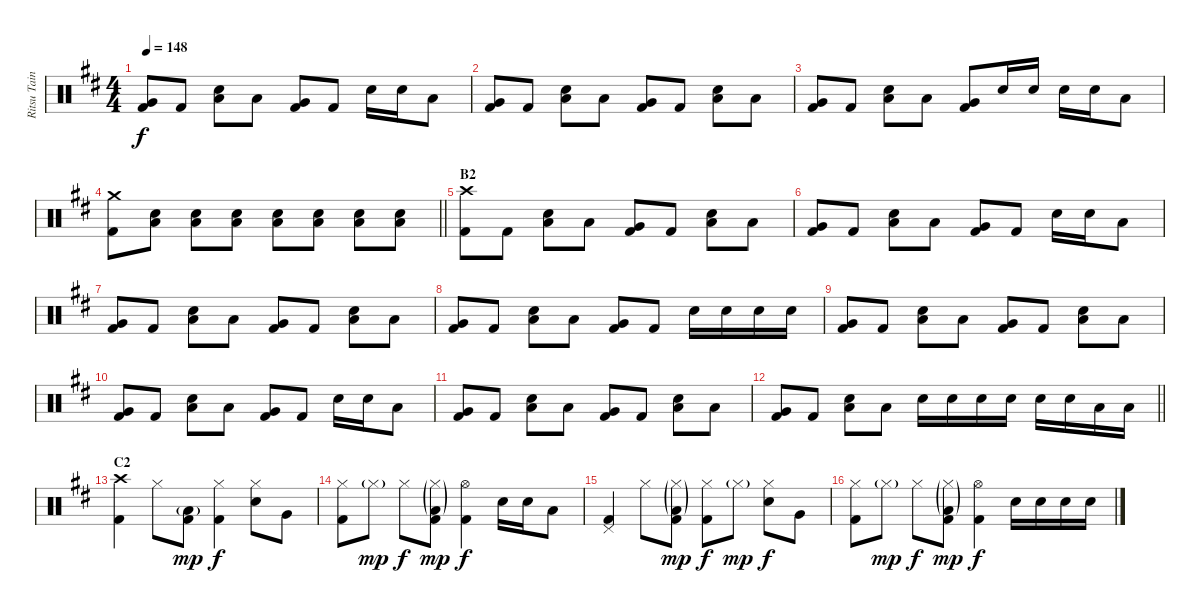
\track ("Ritsu Tainaka" "Ritsu Tain") {instrument percussion}
\staff {score}
\articulation defaults
\ts (4 4)
\tempo 148
\clef neutral
\ks d
("Very Low Tom (hit)" "Kick (hit) 2").8{dy f} "Kick (hit) 2".8 ("Snare (hit) 2" "Low Floor Tom (hit)").8 "Low Tom (hit)".8 ("Very Low Tom (hit)" "Kick (hit) 2").8 "Kick (hit) 2".8 "Snare (hit) 2".16 "Snare (hit) 2".16 "Low Tom (hit)".8 |
("Very Low Tom (hit)" "Kick (hit) 2").8 "Kick (hit) 2".8 ("Snare (hit) 2" "Low Floor Tom (hit)").8 "Low Tom (hit)".8 ("Very Low Tom (hit)" "Kick (hit) 2").8 "Kick (hit) 2".8 ("Snare (hit) 2" "Low Floor Tom (hit)").8 "Low Tom (hit)".8 |
("Very Low Tom (hit)" "Kick (hit) 2").8 "Kick (hit) 2".8 ("Snare (hit) 2" "Low Floor Tom (hit)").8 "Low Tom (hit)".8 ("Very Low Tom (hit)" "Kick (hit) 2").8 "Snare (hit) 2".16 "Snare (hit) 2".16 "Snare (hit) 2".16 "Snare (hit) 2".16 "Low Tom (hit)".8 |
\barLineRight lightlight
("Crash medium (hit)" "Kick (hit) 2").8 ("Snare (hit) 2" "Low Floor Tom (hit)").8 ("Snare (hit) 2" "Low Floor Tom (hit)").8 ("Snare (hit) 2" "Low Floor Tom (hit)").8 ("Snare (hit) 2" "Low Floor Tom (hit)").8 ("Snare (hit) 2" "Low Floor Tom (hit)").8 ("Snare (hit) 2" "Low Floor Tom (hit)").8 ("Snare (hit) 2" "Low Floor Tom (hit)").8 |
\section ("" "B2")
("Crash high (hit)" "Kick (hit) 2").8 "Kick (hit) 2".8 ("Snare (hit) 2" "Low Floor Tom (hit)").8 "Low Tom (hit)".8 ("Very Low Tom (hit)" "Kick (hit) 2").8 "Kick (hit) 2".8 ("Snare (hit) 2" "Low Floor Tom (hit)").8 "Low Tom (hit)".8 |
("Very Low Tom (hit)" "Kick (hit) 2").8 "Kick (hit) 2".8 ("Snare (hit) 2" "Low Floor Tom (hit)").8 "Low Tom (hit)".8 ("Very Low Tom (hit)" "Kick (hit) 2").8 "Kick (hit) 2".8 "Snare (hit) 2".16 "Snare (hit) 2".16 "Low Tom (hit)".8 |
("Very Low Tom (hit)" "Kick (hit) 2").8 "Kick (hit) 2".8 ("Snare (hit) 2" "Low Floor Tom (hit)").8 "Low Tom (hit)".8 ("Very Low Tom (hit)" "Kick (hit) 2").8 "Kick (hit) 2".8 ("Snare (hit) 2" "Low Floor Tom (hit)").8 "Low Tom (hit)".8 |
("Very Low Tom (hit)" "Kick (hit) 2").8 "Kick (hit) 2".8 ("Snare (hit) 2" "Low Floor Tom (hit)").8 "Low Tom (hit)".8 ("Very Low Tom (hit)" "Kick (hit) 2").8 "Kick (hit) 2".8 "Snare (hit) 2".16 "Snare (hit) 2".16 "Snare (hit) 2".16 "Snare (hit) 2".16 |
("Very Low Tom (hit)" "Kick (hit) 2").8 "Kick (hit) 2".8 ("Snare (hit) 2" "Low Floor Tom (hit)").8 "Low Tom (hit)".8 ("Very Low Tom (hit)" "Kick (hit) 2").8 "Kick (hit) 2".8 ("Snare (hit) 2" "Low Floor Tom (hit)").8 "Low Tom (hit)".8 |
("Very Low Tom (hit)" "Kick (hit) 2").8 "Kick (hit) 2".8 ("Snare (hit) 2" "Low Floor Tom (hit)").8 "Low Tom (hit)".8 ("Very Low Tom (hit)" "Kick (hit) 2").8 "Kick (hit) 2".8 "Snare (hit) 2".16 "Snare (hit) 2".16 "Low Tom (hit)".8 |
("Very Low Tom (hit)" "Kick (hit) 2").8 "Kick (hit) 2".8 ("Snare (hit) 2" "Low Floor Tom (hit)").8 "Low Tom (hit)".8 ("Very Low Tom (hit)" "Kick (hit) 2").8 "Kick (hit) 2".8 ("Snare (hit) 2" "Low Floor Tom (hit)").8 "Low Tom (hit)".8 |
\barLineRight lightlight
("Very Low Tom (hit)" "Kick (hit) 2").8 "Kick (hit) 2".8 ("Snare (hit) 2" "Low Floor Tom (hit)").8 "Low Tom (hit)".8 "Snare (hit) 2".16 "Snare (hit) 2".16 "Snare (hit) 2".16 "Snare (hit) 2".16 "Snare (hit) 2".16 "Snare (hit) 2".16 "Low Tom (hit)".16 "Low Tom (hit)".16 |
\section ("" "C2")
("Crash high (hit)" "Kick (hit) 2").4 "Hi-Hat (closed)".8 ("Low Floor Tom (hit)"{g} "Kick (hit) 2").8{dy mp} ("Hi-Hat (closed)" "Kick (hit) 2").4{dy f} ("Hi-Hat (closed)" "Snare (hit) 2").8 "Very Low Tom (hit)".8 |
("Hi-Hat (closed)" "Kick (hit) 2").8 "Hi-Hat (closed)"{g}.8{dy mp} "Hi-Hat (closed)".8{dy f} ("Hi-Hat (closed)"{g} "Low Floor Tom (hit)"{g} "Kick (hit) 2").8{dy mp} ("Hi-Hat (open)" "Kick (hit) 2").4{dy f} "Snare (hit) 2".16 "Snare (hit) 2".16 "Low Tom (hit)".8 |
("Pedal Hi-Hat (hit)" "Kick (hit) 2").4 "Hi-Hat (closed)".8 ("Hi-Hat (closed)"{g} "Low Floor Tom (hit)"{g} "Kick (hit) 2").8{dy mp} ("Hi-Hat (closed)" "Kick (hit) 2").8{dy f} "Hi-Hat (closed)"{g}.8{dy mp} ("Hi-Hat (closed)" "Snare (hit) 2").8{dy f} "Very Low Tom (hit)".8 |
("Hi-Hat (closed)" "Kick (hit) 2").8 "Hi-Hat (closed)"{g}.8{dy mp} "Hi-Hat (closed)".8{dy f} ("Hi-Hat (closed)"{g} "Low Floor Tom (hit)"{g} "Kick (hit) 2").8{dy mp} ("Hi-Hat (open)" "Kick (hit) 2").4{dy f} "Snare (hit) 2".16 "Snare (hit) 2".16 "Snare (hit) 2".16 "Snare (hit) 2".16
